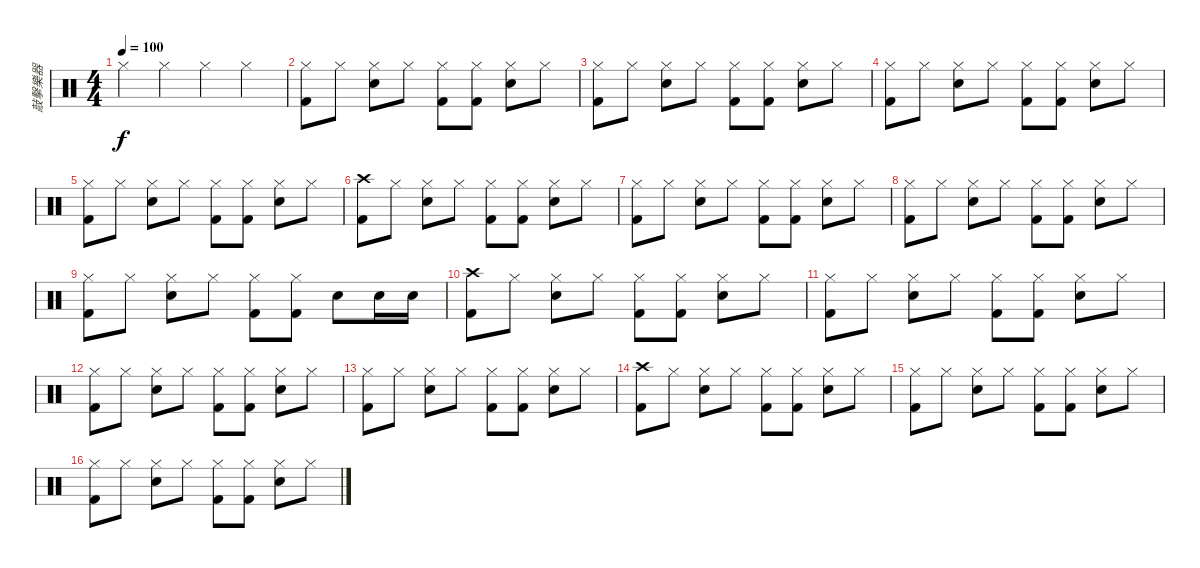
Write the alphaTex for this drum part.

\track ("敲擊樂器" "敲擊樂器") {instrument percussion}
\staff {score}
\articulation defaults
\ts (4 4)
\tempo 100
\clef neutral
\ks c "Hi-Hat (closed)".4{dy f} "Hi-Hat (closed)".4 "Hi-Hat (closed)".4 "Hi-Hat (closed)".4
|
("Hi-Hat (closed)" "Kick (hit) 2").8 "Hi-Hat (closed)".8 ("Hi-Hat (closed)" "Snare (hit) 2").8 "Hi-Hat (closed)".8 ("Hi-Hat (closed)" "Kick (hit) 2").8 ("Hi-Hat (closed)" "Kick (hit) 2").8 ("Hi-Hat (closed)" "Snare (hit) 2").8 "Hi-Hat (closed)".8 |
("Hi-Hat (closed)" "Kick (hit) 2").8 "Hi-Hat (closed)".8 ("Hi-Hat (closed)" "Snare (hit) 2").8 "Hi-Hat (closed)".8 ("Hi-Hat (closed)" "Kick (hit) 2").8 ("Hi-Hat (closed)" "Kick (hit) 2").8 ("Hi-Hat (closed)" "Snare (hit) 2").8 "Hi-Hat (closed)".8 |
("Hi-Hat (closed)" "Kick (hit) 2").8 "Hi-Hat (closed)".8 ("Hi-Hat (closed)" "Snare (hit) 2").8 "Hi-Hat (closed)".8 ("Hi-Hat (closed)" "Kick (hit) 2").8 ("Hi-Hat (closed)" "Kick (hit) 2").8 ("Hi-Hat (closed)" "Snare (hit) 2").8 "Hi-Hat (closed)".8 |
("Hi-Hat (closed)" "Kick (hit) 2").8 "Hi-Hat (closed)".8 ("Hi-Hat (closed)" "Snare (hit) 2").8 "Hi-Hat (closed)".8 ("Hi-Hat (closed)" "Kick (hit) 2").8 ("Hi-Hat (closed)" "Kick (hit) 2").8 ("Hi-Hat (closed)" "Snare (hit) 2").8 "Hi-Hat (closed)".8 |
("Crash high (hit)" "Kick (hit) 2").8 "Hi-Hat (closed)".8 ("Hi-Hat (closed)" "Snare (hit) 2").8 "Hi-Hat (closed)".8 ("Hi-Hat (closed)" "Kick (hit) 2").8 ("Hi-Hat (closed)" "Kick (hit) 2").8 ("Hi-Hat (closed)" "Snare (hit) 2").8 "Hi-Hat (closed)".8 |
("Hi-Hat (closed)" "Kick (hit) 2").8 "Hi-Hat (closed)".8 ("Hi-Hat (closed)" "Snare (hit) 2").8 "Hi-Hat (closed)".8 ("Hi-Hat (closed)" "Kick (hit) 2").8 ("Hi-Hat (closed)" "Kick (hit) 2").8 ("Hi-Hat (closed)" "Snare (hit) 2").8 "Hi-Hat (closed)".8 |
("Hi-Hat (closed)" "Kick (hit) 2").8 "Hi-Hat (closed)".8 ("Hi-Hat (closed)" "Snare (hit) 2").8 "Hi-Hat (closed)".8 ("Hi-Hat (closed)" "Kick (hit) 2").8 ("Hi-Hat (closed)" "Kick (hit) 2").8 ("Hi-Hat (closed)" "Snare (hit) 2").8 "Hi-Hat (closed)".8 |
("Hi-Hat (closed)" "Kick (hit) 2").8 "Hi-Hat (closed)".8 ("Hi-Hat (closed)" "Snare (hit) 2").8 "Hi-Hat (closed)".8 ("Hi-Hat (closed)" "Kick (hit) 2").8 ("Hi-Hat (closed)" "Kick (hit) 2").8 "Snare (hit) 2".8 "Snare (hit) 2".16 "Snare (hit) 2".16 |
("Crash high (hit)" "Kick (hit) 2").8 "Hi-Hat (closed)".8 ("Hi-Hat (closed)" "Snare (hit) 2").8 "Hi-Hat (closed)".8 ("Hi-Hat (closed)" "Kick (hit) 2").8 ("Hi-Hat (closed)" "Kick (hit) 2").8 ("Hi-Hat (closed)" "Snare (hit) 2").8 "Hi-Hat (closed)".8 |
("Hi-Hat (closed)" "Kick (hit) 2").8 "Hi-Hat (closed)".8 ("Hi-Hat (closed)" "Snare (hit) 2").8 "Hi-Hat (closed)".8 ("Hi-Hat (closed)" "Kick (hit) 2").8 ("Hi-Hat (closed)" "Kick (hit) 2").8 ("Hi-Hat (closed)" "Snare (hit) 2").8 "Hi-Hat (closed)".8 |
("Hi-Hat (closed)" "Kick (hit) 2").8 "Hi-Hat (closed)".8 ("Hi-Hat (closed)" "Snare (hit) 2").8 "Hi-Hat (closed)".8 ("Hi-Hat (closed)" "Kick (hit) 2").8 ("Hi-Hat (closed)" "Kick (hit) 2").8 ("Hi-Hat (closed)" "Snare (hit) 2").8 "Hi-Hat (closed)".8 |
("Hi-Hat (closed)" "Kick (hit) 2").8 "Hi-Hat (closed)".8 ("Hi-Hat (closed)" "Snare (hit) 2").8 "Hi-Hat (closed)".8 ("Hi-Hat (closed)" "Kick (hit) 2").8 ("Hi-Hat (closed)" "Kick (hit) 2").8 ("Hi-Hat (closed)" "Snare (hit) 2").8 "Hi-Hat (closed)".8 |
("Crash high (hit)" "Kick (hit) 2").8 "Hi-Hat (closed)".8 ("Hi-Hat (closed)" "Snare (hit) 2").8 "Hi-Hat (closed)".8 ("Hi-Hat (closed)" "Kick (hit) 2").8 ("Hi-Hat (closed)" "Kick (hit) 2").8 ("Hi-Hat (closed)" "Snare (hit) 2").8 "Hi-Hat (closed)".8 |
("Hi-Hat (closed)" "Kick (hit) 2").8 "Hi-Hat (closed)".8 ("Hi-Hat (closed)" "Snare (hit) 2").8 "Hi-Hat (closed)".8 ("Hi-Hat (closed)" "Kick (hit) 2").8 ("Hi-Hat (closed)" "Kick (hit) 2").8 ("Hi-Hat (closed)" "Snare (hit) 2").8 "Hi-Hat (closed)".8 |
("Hi-Hat (closed)" "Kick (hit) 2").8 "Hi-Hat (closed)".8 ("Hi-Hat (closed)" "Snare (hit) 2").8 "Hi-Hat (closed)".8 ("Hi-Hat (closed)" "Kick (hit) 2").8 ("Hi-Hat (closed)" "Kick (hit) 2").8 ("Hi-Hat (closed)" "Snare (hit) 2").8 "Hi-Hat (closed)".8
